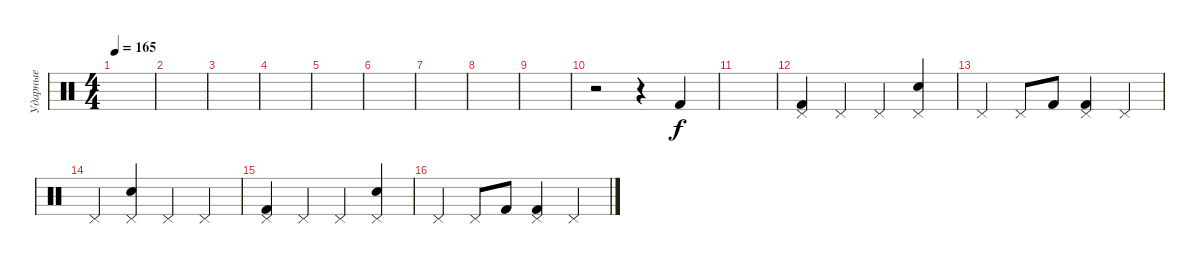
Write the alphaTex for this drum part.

\track ("Ударные" "Ударные") {instrument percussion}
\staff {score}
\articulation defaults
\ts (4 4)
\tempo 165
\clef neutral
\ks c
|
|
|
|
|
|
|
|
|
r.2 r.4 "Kick (hit) 2".4 |
|
("Pedal Hi-Hat (hit)" "Kick (hit) 2").4 "Pedal Hi-Hat (hit)".4 "Pedal Hi-Hat (hit)".4 ("Pedal Hi-Hat (hit)" "Snare (hit) 2").4 |
"Pedal Hi-Hat (hit)".4 "Pedal Hi-Hat (hit)".8 "Kick (hit) 2".8 ("Pedal Hi-Hat (hit)" "Kick (hit) 2").4 "Pedal Hi-Hat (hit)".4 |
"Pedal Hi-Hat (hit)".4 ("Pedal Hi-Hat (hit)" "Snare (hit) 2").4 "Pedal Hi-Hat (hit)".4 "Pedal Hi-Hat (hit)".4 |
("Pedal Hi-Hat (hit)" "Kick (hit) 2").4 "Pedal Hi-Hat (hit)".4 "Pedal Hi-Hat (hit)".4 ("Pedal Hi-Hat (hit)" "Snare (hit) 2").4 |
"Pedal Hi-Hat (hit)".4 "Pedal Hi-Hat (hit)".8 "Kick (hit) 2".8 ("Pedal Hi-Hat (hit)" "Kick (hit) 2").4 "Pedal Hi-Hat (hit)".4
